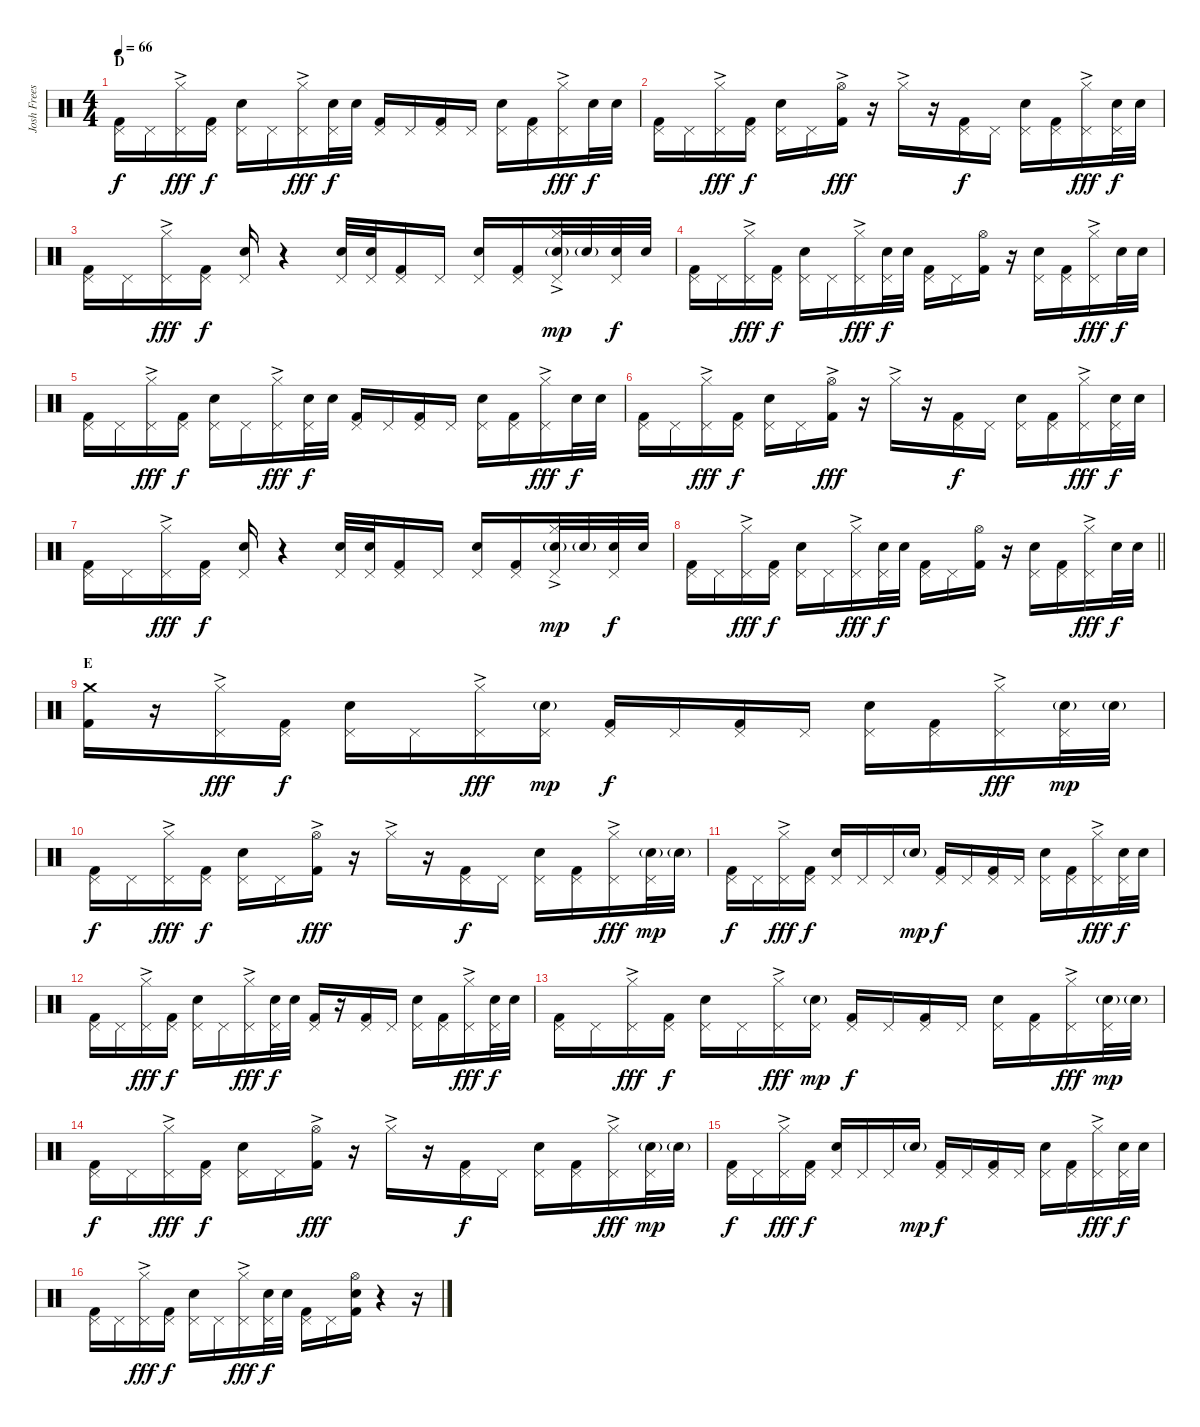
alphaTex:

\track ("Josh Freese - Drums" "Josh Frees") {instrument percussion}
\staff {score}
\articulation defaults
\ts (4 4)
\section ("" "D")
\tempo 66
\clef neutral
\ks c
("Pedal Hi-Hat (hit)" "Kick (hit) 2").16{dy f} "Pedal Hi-Hat (hit)".16 ("Hi-Hat (closed)"{ac} "Pedal Hi-Hat (hit)"{ac}).16{dy fff} ("Pedal Hi-Hat (hit)" "Kick (hit) 2").16{dy f} ("Pedal Hi-Hat (hit)" "Electric Snare (hit)").16 "Pedal Hi-Hat (hit)".16 ("Hi-Hat (closed)"{ac} "Pedal Hi-Hat (hit)"{ac}).16{dy fff} ("Pedal Hi-Hat (hit)" "Electric Snare (hit)").32{dy f} "Electric Snare (hit)".32 ("Pedal Hi-Hat (hit)" "Kick (hit) 2").16 "Pedal Hi-Hat (hit)".16 ("Pedal Hi-Hat (hit)" "Kick (hit) 2").16 "Pedal Hi-Hat (hit)".16 ("Pedal Hi-Hat (hit)" "Electric Snare (hit)").16 ("Pedal Hi-Hat (hit)" "Kick (hit) 2").16 ("Hi-Hat (closed)"{ac} "Pedal Hi-Hat (hit)"{ac}).16{dy fff} "Electric Snare (hit)".32{dy f} "Electric Snare (hit)".32 |
("Pedal Hi-Hat (hit)" "Kick (hit) 2").16 "Pedal Hi-Hat (hit)".16 ("Hi-Hat (closed)"{ac} "Pedal Hi-Hat (hit)"{ac}).16{dy fff} ("Pedal Hi-Hat (hit)" "Kick (hit) 2").16{dy f} ("Pedal Hi-Hat (hit)" "Electric Snare (hit)").16 "Pedal Hi-Hat (hit)".16 ("Hi-Hat (open)"{ac} "Kick (hit) 2").16{dy fff} r.16 "Hi-Hat (closed)"{ac}.16 r.16 ("Pedal Hi-Hat (hit)" "Kick (hit) 2").16{dy f} "Pedal Hi-Hat (hit)".16 ("Pedal Hi-Hat (hit)" "Electric Snare (hit)").16 ("Pedal Hi-Hat (hit)" "Kick (hit) 2").16 ("Hi-Hat (closed)"{ac} "Pedal Hi-Hat (hit)"{ac}).16{dy fff} ("Pedal Hi-Hat (hit)" "Electric Snare (hit)").32{dy f} "Electric Snare (hit)".32 |
("Pedal Hi-Hat (hit)" "Kick (hit) 2").16 "Pedal Hi-Hat (hit)".16 ("Hi-Hat (closed)"{ac} "Pedal Hi-Hat (hit)"{ac}).16{dy fff} ("Pedal Hi-Hat (hit)" "Kick (hit) 2").16{dy f} ("Pedal Hi-Hat (hit)" "Electric Snare (hit)").16 r.4 ("Pedal Hi-Hat (hit)" "Electric Snare (hit)").32 ("Pedal Hi-Hat (hit)" "Electric Snare (hit)").32 ("Pedal Hi-Hat (hit)" "Kick (hit) 2").16 "Pedal Hi-Hat (hit)".16 ("Pedal Hi-Hat (hit)" "Electric Snare (hit)").16 ("Pedal Hi-Hat (hit)" "Kick (hit) 2").16 ("Hi-Hat (closed)"{ac} "Pedal Hi-Hat (hit)"{ac} "Electric Snare (hit)"{g}).32{dy mp} "Electric Snare (hit)"{g}.32 ("Pedal Hi-Hat (hit)" "Electric Snare (hit)").32{dy f} "Electric Snare (hit)".32 |
("Pedal Hi-Hat (hit)" "Kick (hit) 2").16 "Pedal Hi-Hat (hit)".16 ("Hi-Hat (closed)"{ac} "Pedal Hi-Hat (hit)"{ac}).16{dy fff} ("Pedal Hi-Hat (hit)" "Kick (hit) 2").16{dy f} ("Pedal Hi-Hat (hit)" "Electric Snare (hit)").16 "Pedal Hi-Hat (hit)".16 ("Hi-Hat (closed)"{ac} "Pedal Hi-Hat (hit)"{ac}).16{dy fff} ("Pedal Hi-Hat (hit)" "Electric Snare (hit)").32{dy f} "Electric Snare (hit)".32 ("Pedal Hi-Hat (hit)" "Kick (hit) 2").16 "Pedal Hi-Hat (hit)".16 ("Hi-Hat (open)" "Kick (hit) 2").16 r.16 ("Pedal Hi-Hat (hit)" "Electric Snare (hit)").16 ("Pedal Hi-Hat (hit)" "Kick (hit) 2").16 ("Hi-Hat (closed)"{ac} "Pedal Hi-Hat (hit)"{ac}).16{dy fff} "Electric Snare (hit)".32{dy f} "Electric Snare (hit)".32 |
("Pedal Hi-Hat (hit)" "Kick (hit) 2").16 "Pedal Hi-Hat (hit)".16 ("Hi-Hat (closed)"{ac} "Pedal Hi-Hat (hit)"{ac}).16{dy fff} ("Pedal Hi-Hat (hit)" "Kick (hit) 2").16{dy f} ("Pedal Hi-Hat (hit)" "Electric Snare (hit)").16 "Pedal Hi-Hat (hit)".16 ("Hi-Hat (closed)"{ac} "Pedal Hi-Hat (hit)"{ac}).16{dy fff} ("Pedal Hi-Hat (hit)" "Electric Snare (hit)").32{dy f} "Electric Snare (hit)".32 ("Pedal Hi-Hat (hit)" "Kick (hit) 2").16 "Pedal Hi-Hat (hit)".16 ("Pedal Hi-Hat (hit)" "Kick (hit) 2").16 "Pedal Hi-Hat (hit)".16 ("Pedal Hi-Hat (hit)" "Electric Snare (hit)").16 ("Pedal Hi-Hat (hit)" "Kick (hit) 2").16 ("Hi-Hat (closed)"{ac} "Pedal Hi-Hat (hit)"{ac}).16{dy fff} "Electric Snare (hit)".32{dy f} "Electric Snare (hit)".32 |
("Pedal Hi-Hat (hit)" "Kick (hit) 2").16 "Pedal Hi-Hat (hit)".16 ("Hi-Hat (closed)"{ac} "Pedal Hi-Hat (hit)"{ac}).16{dy fff} ("Pedal Hi-Hat (hit)" "Kick (hit) 2").16{dy f} ("Pedal Hi-Hat (hit)" "Electric Snare (hit)").16 "Pedal Hi-Hat (hit)".16 ("Hi-Hat (open)"{ac} "Kick (hit) 2").16{dy fff} r.16 "Hi-Hat (closed)"{ac}.16 r.16 ("Pedal Hi-Hat (hit)" "Kick (hit) 2").16{dy f} "Pedal Hi-Hat (hit)".16 ("Pedal Hi-Hat (hit)" "Electric Snare (hit)").16 ("Pedal Hi-Hat (hit)" "Kick (hit) 2").16 ("Hi-Hat (closed)"{ac} "Pedal Hi-Hat (hit)"{ac}).16{dy fff} ("Pedal Hi-Hat (hit)" "Electric Snare (hit)").32{dy f} "Electric Snare (hit)".32 |
("Pedal Hi-Hat (hit)" "Kick (hit) 2").16 "Pedal Hi-Hat (hit)".16 ("Hi-Hat (closed)"{ac} "Pedal Hi-Hat (hit)"{ac}).16{dy fff} ("Pedal Hi-Hat (hit)" "Kick (hit) 2").16{dy f} ("Pedal Hi-Hat (hit)" "Electric Snare (hit)").16 r.4 ("Pedal Hi-Hat (hit)" "Electric Snare (hit)").32 ("Pedal Hi-Hat (hit)" "Electric Snare (hit)").32 ("Pedal Hi-Hat (hit)" "Kick (hit) 2").16 "Pedal Hi-Hat (hit)".16 ("Pedal Hi-Hat (hit)" "Electric Snare (hit)").16 ("Pedal Hi-Hat (hit)" "Kick (hit) 2").16 ("Hi-Hat (closed)"{ac} "Pedal Hi-Hat (hit)"{ac} "Electric Snare (hit)"{g}).32{dy mp} "Electric Snare (hit)"{g}.32 ("Pedal Hi-Hat (hit)" "Electric Snare (hit)").32{dy f} "Electric Snare (hit)".32 |
\barLineRight lightlight
("Pedal Hi-Hat (hit)" "Kick (hit) 2").16 "Pedal Hi-Hat (hit)".16 ("Hi-Hat (closed)"{ac} "Pedal Hi-Hat (hit)"{ac}).16{dy fff} ("Pedal Hi-Hat (hit)" "Kick (hit) 2").16{dy f} ("Pedal Hi-Hat (hit)" "Electric Snare (hit)").16 "Pedal Hi-Hat (hit)".16 ("Hi-Hat (closed)"{ac} "Pedal Hi-Hat (hit)"{ac}).16{dy fff} ("Pedal Hi-Hat (hit)" "Electric Snare (hit)").32{dy f} "Electric Snare (hit)".32 ("Pedal Hi-Hat (hit)" "Kick (hit) 2").16 "Pedal Hi-Hat (hit)".16 ("Hi-Hat (open)" "Kick (hit) 2").16 r.16 ("Pedal Hi-Hat (hit)" "Electric Snare (hit)").16 ("Pedal Hi-Hat (hit)" "Kick (hit) 2").16 ("Hi-Hat (closed)"{ac} "Pedal Hi-Hat (hit)"{ac}).16{dy fff} "Electric Snare (hit)".32{dy f} "Electric Snare (hit)".32 |
\section ("" "E")
("Crash medium (hit)" "Kick (hit) 2").16 r.16 ("Hi-Hat (closed)"{ac} "Pedal Hi-Hat (hit)"{ac}).16{dy fff} ("Pedal Hi-Hat (hit)" "Kick (hit) 2").16{dy f} ("Pedal Hi-Hat (hit)" "Electric Snare (hit)").16 "Pedal Hi-Hat (hit)".16 ("Hi-Hat (closed)"{ac} "Pedal Hi-Hat (hit)"{ac}).16{dy fff} ("Pedal Hi-Hat (hit)" "Electric Snare (hit)"{g}).16{dy mp} ("Pedal Hi-Hat (hit)" "Kick (hit) 2").16{dy f} "Pedal Hi-Hat (hit)".16 ("Pedal Hi-Hat (hit)" "Kick (hit) 2").16 "Pedal Hi-Hat (hit)".16 ("Pedal Hi-Hat (hit)" "Electric Snare (hit)").16 ("Pedal Hi-Hat (hit)" "Kick (hit) 2").16 ("Hi-Hat (closed)"{ac} "Pedal Hi-Hat (hit)"{ac}).16{dy fff} ("Pedal Hi-Hat (hit)" "Electric Snare (hit)"{g}).32{dy mp} "Electric Snare (hit)"{g}.32 |
("Pedal Hi-Hat (hit)" "Kick (hit) 2").16{dy f} "Pedal Hi-Hat (hit)".16 ("Hi-Hat (closed)"{ac} "Pedal Hi-Hat (hit)"{ac}).16{dy fff} ("Pedal Hi-Hat (hit)" "Kick (hit) 2").16{dy f} ("Pedal Hi-Hat (hit)" "Electric Snare (hit)").16 "Pedal Hi-Hat (hit)".16 ("Hi-Hat (open)"{ac} "Kick (hit) 2").16{dy fff} r.16 "Hi-Hat (closed)"{ac}.16 r.16 ("Pedal Hi-Hat (hit)" "Kick (hit) 2").16{dy f} "Pedal Hi-Hat (hit)".16 ("Pedal Hi-Hat (hit)" "Electric Snare (hit)").16 ("Pedal Hi-Hat (hit)" "Kick (hit) 2").16 ("Hi-Hat (closed)"{ac} "Pedal Hi-Hat (hit)"{ac}).16{dy fff} ("Pedal Hi-Hat (hit)" "Electric Snare (hit)"{g}).32{dy mp} "Electric Snare (hit)"{g}.32 |
("Pedal Hi-Hat (hit)" "Kick (hit) 2").16{dy f} "Pedal Hi-Hat (hit)".16 ("Hi-Hat (closed)"{ac} "Pedal Hi-Hat (hit)"{ac}).16{dy fff} ("Pedal Hi-Hat (hit)" "Kick (hit) 2").16{dy f} ("Pedal Hi-Hat (hit)" "Electric Snare (hit)").16 "Pedal Hi-Hat (hit)".16 "Pedal Hi-Hat (hit)".16 "Electric Snare (hit)"{g}.16{dy mp} ("Pedal Hi-Hat (hit)" "Kick (hit) 2").16{dy f} "Pedal Hi-Hat (hit)".16 ("Pedal Hi-Hat (hit)" "Kick (hit) 2").16 "Pedal Hi-Hat (hit)".16 ("Pedal Hi-Hat (hit)" "Electric Snare (hit)").16 ("Pedal Hi-Hat (hit)" "Kick (hit) 2").16 ("Hi-Hat (closed)"{ac} "Pedal Hi-Hat (hit)"{ac}).16{dy fff} ("Pedal Hi-Hat (hit)" "Electric Snare (hit)").32{dy f} "Electric Snare (hit)".32 |
("Pedal Hi-Hat (hit)" "Kick (hit) 2").16 "Pedal Hi-Hat (hit)".16 ("Hi-Hat (closed)"{ac} "Pedal Hi-Hat (hit)"{ac}).16{dy fff} ("Pedal Hi-Hat (hit)" "Kick (hit) 2").16{dy f} ("Pedal Hi-Hat (hit)" "Electric Snare (hit)").16 "Pedal Hi-Hat (hit)".16 ("Hi-Hat (closed)"{ac} "Pedal Hi-Hat (hit)"{ac}).16{dy fff} ("Pedal Hi-Hat (hit)" "Electric Snare (hit)").32{dy f} "Electric Snare (hit)".32 ("Pedal Hi-Hat (hit)" "Kick (hit) 2").16 r.16 ("Pedal Hi-Hat (hit)" "Kick (hit) 2").16 "Pedal Hi-Hat (hit)".16 ("Pedal Hi-Hat (hit)" "Electric Snare (hit)").16 ("Pedal Hi-Hat (hit)" "Kick (hit) 2").16 ("Hi-Hat (closed)"{ac} "Pedal Hi-Hat (hit)"{ac}).16{dy fff} ("Pedal Hi-Hat (hit)" "Electric Snare (hit)").32{dy f} "Electric Snare (hit)".32 |
("Pedal Hi-Hat (hit)" "Kick (hit) 2").16 "Pedal Hi-Hat (hit)".16 ("Hi-Hat (closed)"{ac} "Pedal Hi-Hat (hit)"{ac}).16{dy fff} ("Pedal Hi-Hat (hit)" "Kick (hit) 2").16{dy f} ("Pedal Hi-Hat (hit)" "Electric Snare (hit)").16 "Pedal Hi-Hat (hit)".16 ("Hi-Hat (closed)"{ac} "Pedal Hi-Hat (hit)"{ac}).16{dy fff} ("Pedal Hi-Hat (hit)" "Electric Snare (hit)"{g}).16{dy mp} ("Pedal Hi-Hat (hit)" "Kick (hit) 2").16{dy f} "Pedal Hi-Hat (hit)".16 ("Pedal Hi-Hat (hit)" "Kick (hit) 2").16 "Pedal Hi-Hat (hit)".16 ("Pedal Hi-Hat (hit)" "Electric Snare (hit)").16 ("Pedal Hi-Hat (hit)" "Kick (hit) 2").16 ("Hi-Hat (closed)"{ac} "Pedal Hi-Hat (hit)"{ac}).16{dy fff} ("Pedal Hi-Hat (hit)" "Electric Snare (hit)"{g}).32{dy mp} "Electric Snare (hit)"{g}.32 |
("Pedal Hi-Hat (hit)" "Kick (hit) 2").16{dy f} "Pedal Hi-Hat (hit)".16 ("Hi-Hat (closed)"{ac} "Pedal Hi-Hat (hit)"{ac}).16{dy fff} ("Pedal Hi-Hat (hit)" "Kick (hit) 2").16{dy f} ("Pedal Hi-Hat (hit)" "Electric Snare (hit)").16 "Pedal Hi-Hat (hit)".16 ("Hi-Hat (open)"{ac} "Kick (hit) 2").16{dy fff} r.16 "Hi-Hat (closed)"{ac}.16 r.16 ("Pedal Hi-Hat (hit)" "Kick (hit) 2").16{dy f} "Pedal Hi-Hat (hit)".16 ("Pedal Hi-Hat (hit)" "Electric Snare (hit)").16 ("Pedal Hi-Hat (hit)" "Kick (hit) 2").16 ("Hi-Hat (closed)"{ac} "Pedal Hi-Hat (hit)"{ac}).16{dy fff} ("Pedal Hi-Hat (hit)" "Electric Snare (hit)"{g}).32{dy mp} "Electric Snare (hit)"{g}.32 |
("Pedal Hi-Hat (hit)" "Kick (hit) 2").16{dy f} "Pedal Hi-Hat (hit)".16 ("Hi-Hat (closed)"{ac} "Pedal Hi-Hat (hit)"{ac}).16{dy fff} ("Pedal Hi-Hat (hit)" "Kick (hit) 2").16{dy f} ("Pedal Hi-Hat (hit)" "Electric Snare (hit)").16 "Pedal Hi-Hat (hit)".16 "Pedal Hi-Hat (hit)".16 "Electric Snare (hit)"{g}.16{dy mp} ("Pedal Hi-Hat (hit)" "Kick (hit) 2").16{dy f} "Pedal Hi-Hat (hit)".16 ("Pedal Hi-Hat (hit)" "Kick (hit) 2").16 "Pedal Hi-Hat (hit)".16 ("Pedal Hi-Hat (hit)" "Electric Snare (hit)").16 ("Pedal Hi-Hat (hit)" "Kick (hit) 2").16 ("Hi-Hat (closed)"{ac} "Pedal Hi-Hat (hit)"{ac}).16{dy fff} ("Pedal Hi-Hat (hit)" "Electric Snare (hit)").32{dy f} "Electric Snare (hit)".32 |
("Pedal Hi-Hat (hit)" "Kick (hit) 2").16 "Pedal Hi-Hat (hit)".16 ("Hi-Hat (closed)"{ac} "Pedal Hi-Hat (hit)"{ac}).16{dy fff} ("Pedal Hi-Hat (hit)" "Kick (hit) 2").16{dy f} ("Pedal Hi-Hat (hit)" "Electric Snare (hit)").16 "Pedal Hi-Hat (hit)".16 ("Hi-Hat (closed)"{ac} "Pedal Hi-Hat (hit)"{ac}).16{dy fff} ("Pedal Hi-Hat (hit)" "Electric Snare (hit)").32{dy f} "Electric Snare (hit)".32 ("Pedal Hi-Hat (hit)" "Kick (hit) 2").16 "Pedal Hi-Hat (hit)".16 ("Hi-Hat (open)" "Electric Snare (hit)" "Kick (hit) 2").16 r.4 r.16
